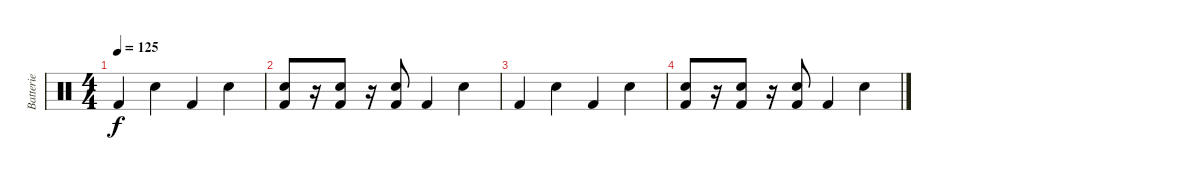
\track ("Batterie" "Batterie") {instrument percussion}
\staff {score}
\articulation defaults
\ts (4 4)
\tempo 125
\clef neutral
\ks c "Kick (hit) 2".4{dy f} "Snare (hit) 2".4 "Kick (hit) 2".4 "Snare (hit) 2".4
|
("Kick (hit) 2" "Snare (hit) 2").8 r.16 ("Kick (hit) 2" "Snare (hit) 2").8 r.16 ("Kick (hit) 2" "Snare (hit) 2").8 "Kick (hit) 2".4 "Snare (hit) 2".4 |
"Kick (hit) 2".4 "Snare (hit) 2".4 "Kick (hit) 2".4 "Snare (hit) 2".4 |
("Kick (hit) 2" "Snare (hit) 2").8 r.16 ("Kick (hit) 2" "Snare (hit) 2").8 r.16 ("Kick (hit) 2" "Snare (hit) 2").8 "Kick (hit) 2".4 "Snare (hit) 2".4
